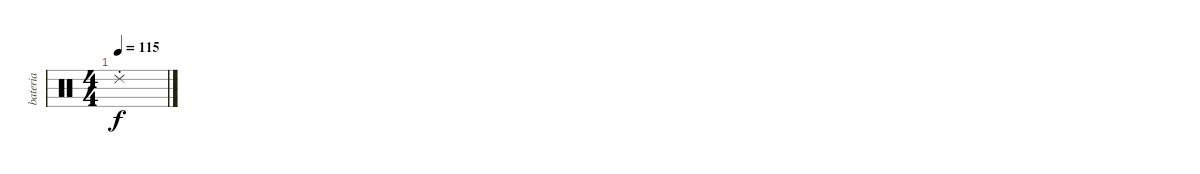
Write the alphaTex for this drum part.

\track ("bateria" "bateria") {instrument percussion}
\staff {score}
\articulation defaults
\ts (4 4)
\tempo 115
\clef neutral
\ks c "Ride (choke) 2"{t}.1{dy f}
